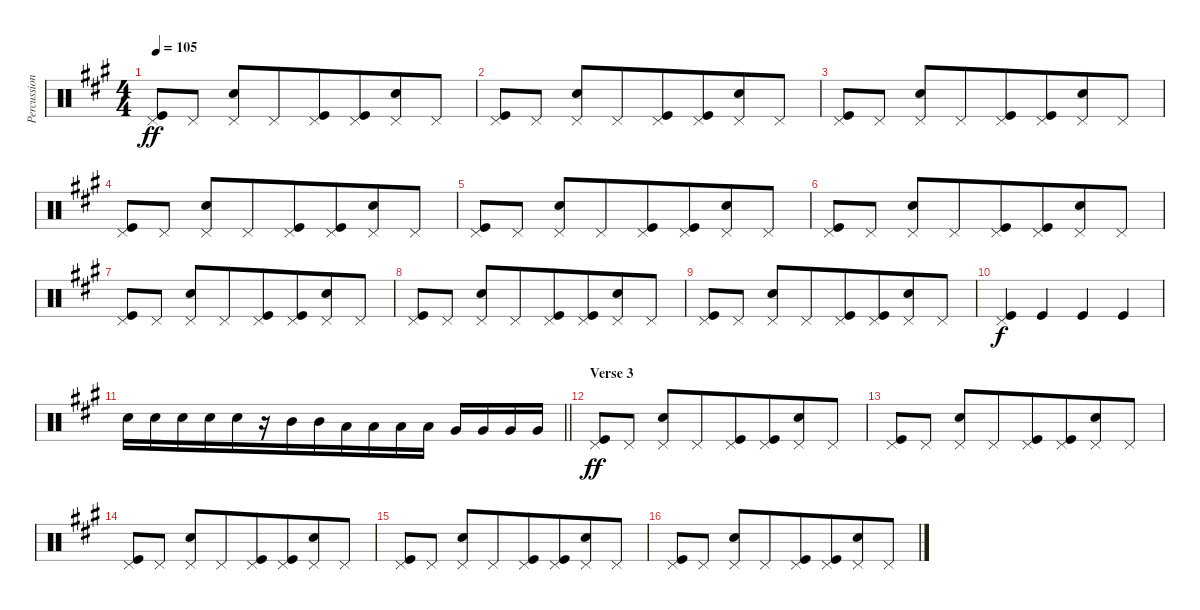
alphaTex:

\track ("Percussion" "Percussion") {instrument percussion}
\staff {score}
\articulation defaults
\ts (4 4)
\tempo 105
\clef neutral
\ks a
("Kick (hit)" "Pedal Hi-Hat (hit)").8{dy ff beam merge} "Pedal Hi-Hat (hit)".8 ("Electric Snare (hit)" "Pedal Hi-Hat (hit)").8 "Pedal Hi-Hat (hit)".8{beam merge} ("Kick (hit)" "Pedal Hi-Hat (hit)").8{beam merge} ("Kick (hit)" "Pedal Hi-Hat (hit)").8{beam merge} ("Electric Snare (hit)" "Pedal Hi-Hat (hit)").8{beam merge} "Pedal Hi-Hat (hit)".8 |
("Kick (hit)" "Pedal Hi-Hat (hit)").8{beam merge} "Pedal Hi-Hat (hit)".8 ("Electric Snare (hit)" "Pedal Hi-Hat (hit)").8 "Pedal Hi-Hat (hit)".8{beam merge} ("Kick (hit)" "Pedal Hi-Hat (hit)").8{beam merge} ("Kick (hit)" "Pedal Hi-Hat (hit)").8{beam merge} ("Electric Snare (hit)" "Pedal Hi-Hat (hit)").8{beam merge} "Pedal Hi-Hat (hit)".8 |
("Kick (hit)" "Pedal Hi-Hat (hit)").8{beam merge} "Pedal Hi-Hat (hit)".8 ("Electric Snare (hit)" "Pedal Hi-Hat (hit)").8 "Pedal Hi-Hat (hit)".8{beam merge} ("Kick (hit)" "Pedal Hi-Hat (hit)").8{beam merge} ("Kick (hit)" "Pedal Hi-Hat (hit)").8{beam merge} ("Electric Snare (hit)" "Pedal Hi-Hat (hit)").8{beam merge} "Pedal Hi-Hat (hit)".8 |
("Kick (hit)" "Pedal Hi-Hat (hit)").8{beam merge} "Pedal Hi-Hat (hit)".8 ("Electric Snare (hit)" "Pedal Hi-Hat (hit)").8 "Pedal Hi-Hat (hit)".8{beam merge} ("Kick (hit)" "Pedal Hi-Hat (hit)").8{beam merge} ("Kick (hit)" "Pedal Hi-Hat (hit)").8{beam merge} ("Electric Snare (hit)" "Pedal Hi-Hat (hit)").8{beam merge} "Pedal Hi-Hat (hit)".8 |
("Kick (hit)" "Pedal Hi-Hat (hit)").8{beam merge} "Pedal Hi-Hat (hit)".8 ("Electric Snare (hit)" "Pedal Hi-Hat (hit)").8 "Pedal Hi-Hat (hit)".8{beam merge} ("Kick (hit)" "Pedal Hi-Hat (hit)").8{beam merge} ("Kick (hit)" "Pedal Hi-Hat (hit)").8{beam merge} ("Electric Snare (hit)" "Pedal Hi-Hat (hit)").8{beam merge} "Pedal Hi-Hat (hit)".8 |
("Kick (hit)" "Pedal Hi-Hat (hit)").8{beam merge} "Pedal Hi-Hat (hit)".8 ("Electric Snare (hit)" "Pedal Hi-Hat (hit)").8 "Pedal Hi-Hat (hit)".8{beam merge} ("Kick (hit)" "Pedal Hi-Hat (hit)").8{beam merge} ("Kick (hit)" "Pedal Hi-Hat (hit)").8{beam merge} ("Electric Snare (hit)" "Pedal Hi-Hat (hit)").8{beam merge} "Pedal Hi-Hat (hit)".8 |
("Kick (hit)" "Pedal Hi-Hat (hit)").8{beam merge} "Pedal Hi-Hat (hit)".8 ("Electric Snare (hit)" "Pedal Hi-Hat (hit)").8 "Pedal Hi-Hat (hit)".8{beam merge} ("Kick (hit)" "Pedal Hi-Hat (hit)").8{beam merge} ("Kick (hit)" "Pedal Hi-Hat (hit)").8{beam merge} ("Electric Snare (hit)" "Pedal Hi-Hat (hit)").8{beam merge} "Pedal Hi-Hat (hit)".8 |
("Kick (hit)" "Pedal Hi-Hat (hit)").8{beam merge} "Pedal Hi-Hat (hit)".8 ("Electric Snare (hit)" "Pedal Hi-Hat (hit)").8 "Pedal Hi-Hat (hit)".8{beam merge} ("Kick (hit)" "Pedal Hi-Hat (hit)").8{beam merge} ("Kick (hit)" "Pedal Hi-Hat (hit)").8{beam merge} ("Electric Snare (hit)" "Pedal Hi-Hat (hit)").8{beam merge} "Pedal Hi-Hat (hit)".8 |
("Kick (hit)" "Pedal Hi-Hat (hit)").8{beam merge} "Pedal Hi-Hat (hit)".8 ("Electric Snare (hit)" "Pedal Hi-Hat (hit)").8 "Pedal Hi-Hat (hit)".8{beam merge} ("Kick (hit)" "Pedal Hi-Hat (hit)").8{beam merge} ("Kick (hit)" "Pedal Hi-Hat (hit)").8{beam merge} ("Electric Snare (hit)" "Pedal Hi-Hat (hit)").8{beam merge} "Pedal Hi-Hat (hit)".8 |
("Kick (hit)" "Pedal Hi-Hat (hit)").4{dy f beam merge} "Kick (hit)".4 "Kick (hit)".4{beam merge} "Kick (hit)".4 |
\barLineRight lightlight "Electric Snare (hit)".16{beam merge} "Electric Snare (hit)".16 "Electric Snare (hit)".16 "Electric Snare (hit)".16{beam merge} "Electric Snare (hit)".16{beam merge}
r.16{beam merge} "Mid Tom (hit)".16 "Mid Tom (hit)".16{beam merge} "Low Tom (hit)".16{beam merge} "Low Tom (hit)".16 "Low Tom (hit)".16 "Low Tom (hit)".16 "Very Low Tom (hit)".16 "Very Low Tom (hit)".16 "Very Low Tom (hit)".16 "Very Low Tom (hit)".16 |
\section ("" "Verse 3")
("Kick (hit)" "Pedal Hi-Hat (hit)").8{dy ff beam merge} "Pedal Hi-Hat (hit)".8 ("Electric Snare (hit)" "Pedal Hi-Hat (hit)").8 "Pedal Hi-Hat (hit)".8{beam merge} ("Kick (hit)" "Pedal Hi-Hat (hit)").8{beam merge} ("Kick (hit)" "Pedal Hi-Hat (hit)").8{beam merge} ("Electric Snare (hit)" "Pedal Hi-Hat (hit)").8{beam merge} "Pedal Hi-Hat (hit)".8 |
("Kick (hit)" "Pedal Hi-Hat (hit)").8{beam merge} "Pedal Hi-Hat (hit)".8 ("Electric Snare (hit)" "Pedal Hi-Hat (hit)").8 "Pedal Hi-Hat (hit)".8{beam merge} ("Kick (hit)" "Pedal Hi-Hat (hit)").8{beam merge} ("Kick (hit)" "Pedal Hi-Hat (hit)").8{beam merge} ("Electric Snare (hit)" "Pedal Hi-Hat (hit)").8{beam merge} "Pedal Hi-Hat (hit)".8 |
("Kick (hit)" "Pedal Hi-Hat (hit)").8{beam merge} "Pedal Hi-Hat (hit)".8 ("Electric Snare (hit)" "Pedal Hi-Hat (hit)").8 "Pedal Hi-Hat (hit)".8{beam merge} ("Kick (hit)" "Pedal Hi-Hat (hit)").8{beam merge} ("Kick (hit)" "Pedal Hi-Hat (hit)").8{beam merge} ("Electric Snare (hit)" "Pedal Hi-Hat (hit)").8{beam merge} "Pedal Hi-Hat (hit)".8 |
("Kick (hit)" "Pedal Hi-Hat (hit)").8{beam merge} "Pedal Hi-Hat (hit)".8 ("Electric Snare (hit)" "Pedal Hi-Hat (hit)").8 "Pedal Hi-Hat (hit)".8{beam merge} ("Kick (hit)" "Pedal Hi-Hat (hit)").8{beam merge} ("Kick (hit)" "Pedal Hi-Hat (hit)").8{beam merge} ("Electric Snare (hit)" "Pedal Hi-Hat (hit)").8{beam merge} "Pedal Hi-Hat (hit)".8 |
("Kick (hit)" "Pedal Hi-Hat (hit)").8{beam merge} "Pedal Hi-Hat (hit)".8 ("Electric Snare (hit)" "Pedal Hi-Hat (hit)").8 "Pedal Hi-Hat (hit)".8{beam merge} ("Kick (hit)" "Pedal Hi-Hat (hit)").8{beam merge} ("Kick (hit)" "Pedal Hi-Hat (hit)").8{beam merge} ("Electric Snare (hit)" "Pedal Hi-Hat (hit)").8{beam merge} "Pedal Hi-Hat (hit)".8
